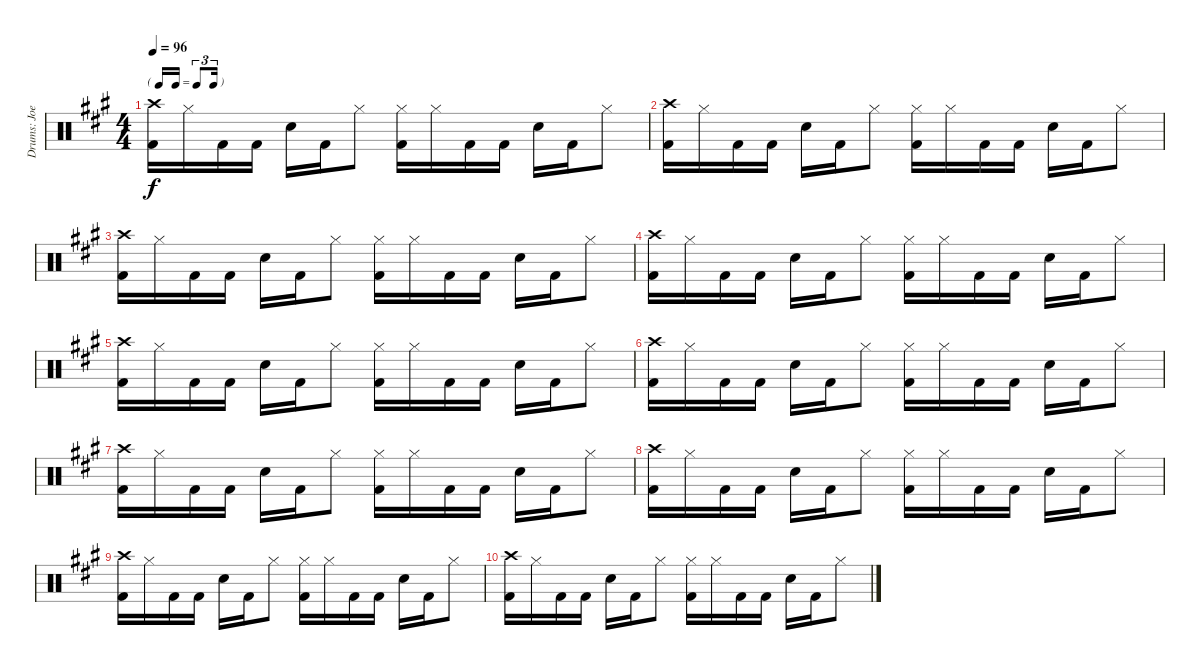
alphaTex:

\track ("Drums: Joey" "Drums: Joe") {instrument percussion}
\staff {score}
\articulation defaults
\ts (4 4)
\tf triplet16th
\tempo 96
\clef neutral
\ks a
("Crash high (hit)" "Kick (hit) 2").16{dy f} "Hi-Hat (closed)".16 "Kick (hit) 2".16 "Kick (hit) 2".16 "Electric Snare (hit)".16 "Kick (hit) 2".16 "Hi-Hat (closed)".8 ("Hi-Hat (closed)" "Kick (hit) 2").16 "Hi-Hat (closed)".16 "Kick (hit) 2".16 "Kick (hit) 2".16 "Electric Snare (hit)".16 "Kick (hit) 2".16 "Hi-Hat (closed)".8 |
("Crash high (hit)" "Kick (hit) 2").16 "Hi-Hat (closed)".16 "Kick (hit) 2".16 "Kick (hit) 2".16 "Electric Snare (hit)".16 "Kick (hit) 2".16 "Hi-Hat (closed)".8 ("Hi-Hat (closed)" "Kick (hit) 2").16 "Hi-Hat (closed)".16 "Kick (hit) 2".16 "Kick (hit) 2".16 "Electric Snare (hit)".16 "Kick (hit) 2".16 "Hi-Hat (closed)".8 |
("Crash high (hit)" "Kick (hit) 2").16 "Hi-Hat (closed)".16 "Kick (hit) 2".16 "Kick (hit) 2".16 "Electric Snare (hit)".16 "Kick (hit) 2".16 "Hi-Hat (closed)".8 ("Hi-Hat (closed)" "Kick (hit) 2").16 "Hi-Hat (closed)".16 "Kick (hit) 2".16 "Kick (hit) 2".16 "Electric Snare (hit)".16 "Kick (hit) 2".16 "Hi-Hat (closed)".8 |
("Crash high (hit)" "Kick (hit) 2").16 "Hi-Hat (closed)".16 "Kick (hit) 2".16 "Kick (hit) 2".16 "Electric Snare (hit)".16 "Kick (hit) 2".16 "Hi-Hat (closed)".8 ("Hi-Hat (closed)" "Kick (hit) 2").16 "Hi-Hat (closed)".16 "Kick (hit) 2".16 "Kick (hit) 2".16 "Electric Snare (hit)".16 "Kick (hit) 2".16 "Hi-Hat (closed)".8 |
("Crash high (hit)" "Kick (hit) 2").16 "Hi-Hat (closed)".16 "Kick (hit) 2".16 "Kick (hit) 2".16 "Electric Snare (hit)".16 "Kick (hit) 2".16 "Hi-Hat (closed)".8 ("Hi-Hat (closed)" "Kick (hit) 2").16 "Hi-Hat (closed)".16 "Kick (hit) 2".16 "Kick (hit) 2".16 "Electric Snare (hit)".16 "Kick (hit) 2".16 "Hi-Hat (closed)".8 |
("Crash high (hit)" "Kick (hit) 2").16 "Hi-Hat (closed)".16 "Kick (hit) 2".16 "Kick (hit) 2".16 "Electric Snare (hit)".16 "Kick (hit) 2".16 "Hi-Hat (closed)".8 ("Hi-Hat (closed)" "Kick (hit) 2").16 "Hi-Hat (closed)".16 "Kick (hit) 2".16 "Kick (hit) 2".16 "Electric Snare (hit)".16 "Kick (hit) 2".16 "Hi-Hat (closed)".8 |
("Crash high (hit)" "Kick (hit) 2").16 "Hi-Hat (closed)".16 "Kick (hit) 2".16 "Kick (hit) 2".16 "Electric Snare (hit)".16 "Kick (hit) 2".16 "Hi-Hat (closed)".8 ("Hi-Hat (closed)" "Kick (hit) 2").16 "Hi-Hat (closed)".16 "Kick (hit) 2".16 "Kick (hit) 2".16 "Electric Snare (hit)".16 "Kick (hit) 2".16 "Hi-Hat (closed)".8 |
("Crash high (hit)" "Kick (hit) 2").16 "Hi-Hat (closed)".16 "Kick (hit) 2".16 "Kick (hit) 2".16 "Electric Snare (hit)".16 "Kick (hit) 2".16 "Hi-Hat (closed)".8 ("Hi-Hat (closed)" "Kick (hit) 2").16 "Hi-Hat (closed)".16 "Kick (hit) 2".16 "Kick (hit) 2".16 "Electric Snare (hit)".16 "Kick (hit) 2".16 "Hi-Hat (closed)".8 |
("Crash high (hit)" "Kick (hit) 2").16 "Hi-Hat (closed)".16 "Kick (hit) 2".16 "Kick (hit) 2".16 "Electric Snare (hit)".16 "Kick (hit) 2".16 "Hi-Hat (closed)".8 ("Hi-Hat (closed)" "Kick (hit) 2").16 "Hi-Hat (closed)".16 "Kick (hit) 2".16 "Kick (hit) 2".16 "Electric Snare (hit)".16 "Kick (hit) 2".16 "Hi-Hat (closed)".8 |
("Crash high (hit)" "Kick (hit) 2").16 "Hi-Hat (closed)".16 "Kick (hit) 2".16 "Kick (hit) 2".16 "Electric Snare (hit)".16 "Kick (hit) 2".16 "Hi-Hat (closed)".8 ("Hi-Hat (closed)" "Kick (hit) 2").16 "Hi-Hat (closed)".16 "Kick (hit) 2".16 "Kick (hit) 2".16 "Electric Snare (hit)".16 "Kick (hit) 2".16 "Hi-Hat (closed)".8
